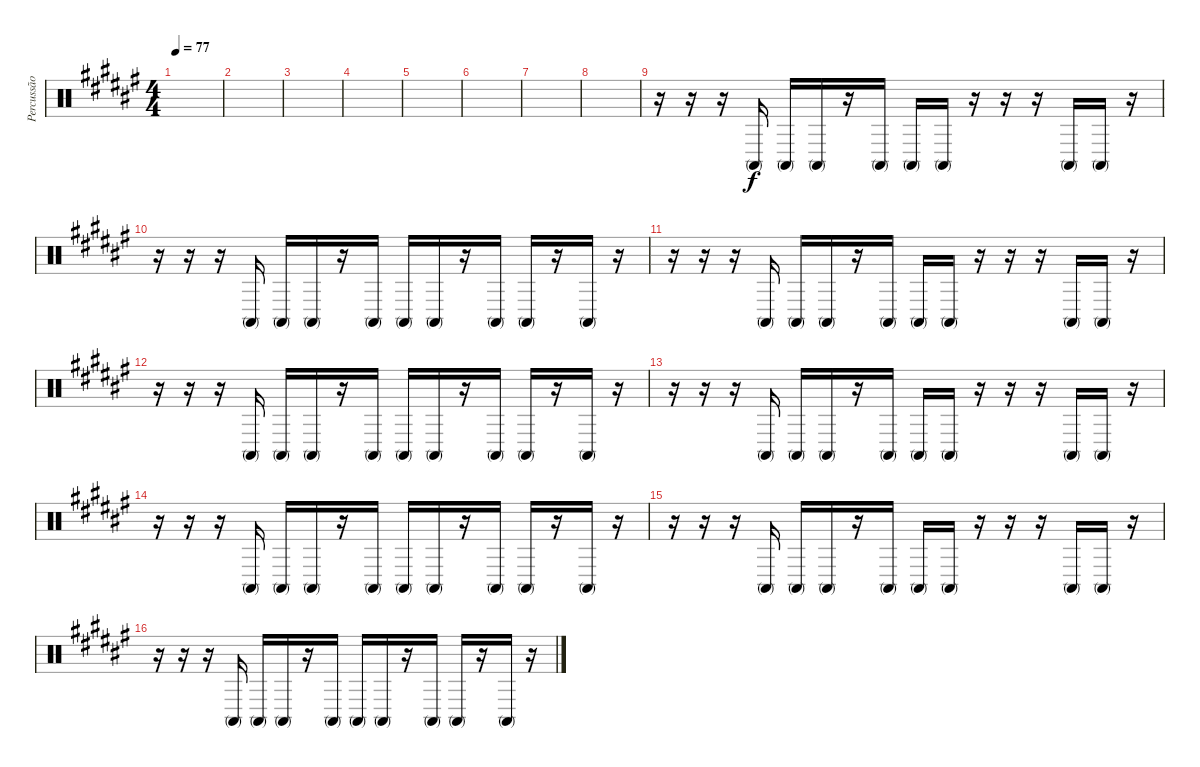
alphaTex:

\track ("Percussão" "Percussão") {instrument percussion}
\staff {score}
\articulation defaults
\ts (4 4)
\tempo 77
\clef neutral
\ks d#minor
|
|
|
|
|
|
|
|
r.16 r.16 r.16 "Conga high (mute)".16 "Conga high (mute)".16 "Conga high (mute)".16 r.16 "Conga high (mute)".16 "Conga high (mute)".16 "Conga high (mute)".16 r.16 r.16 r.16 "Conga high (mute)".16 "Conga high (mute)".16 r.16 |
r.16 r.16 r.16 "Conga high (mute)".16 "Conga high (mute)".16 "Conga high (mute)".16 r.16 "Conga high (mute)".16 "Conga high (mute)".16 "Conga high (mute)".16 r.16 "Conga high (mute)".16 "Conga high (mute)".16 r.16 "Conga high (mute)".16 r.16 |
r.16 r.16 r.16 "Conga high (mute)".16 "Conga high (mute)".16 "Conga high (mute)".16 r.16 "Conga high (mute)".16 "Conga high (mute)".16 "Conga high (mute)".16 r.16 r.16 r.16 "Conga high (mute)".16 "Conga high (mute)".16 r.16 |
r.16 r.16 r.16 "Conga high (mute)".16 "Conga high (mute)".16 "Conga high (mute)".16 r.16 "Conga high (mute)".16 "Conga high (mute)".16 "Conga high (mute)".16 r.16 "Conga high (mute)".16 "Conga high (mute)".16 r.16 "Conga high (mute)".16 r.16 |
r.16 r.16 r.16 "Conga high (mute)".16 "Conga high (mute)".16 "Conga high (mute)".16 r.16 "Conga high (mute)".16 "Conga high (mute)".16 "Conga high (mute)".16 r.16 r.16 r.16 "Conga high (mute)".16 "Conga high (mute)".16 r.16 |
r.16 r.16 r.16 "Conga high (mute)".16 "Conga high (mute)".16 "Conga high (mute)".16 r.16 "Conga high (mute)".16 "Conga high (mute)".16 "Conga high (mute)".16 r.16 "Conga high (mute)".16 "Conga high (mute)".16 r.16 "Conga high (mute)".16 r.16 |
r.16 r.16 r.16 "Conga high (mute)".16 "Conga high (mute)".16 "Conga high (mute)".16 r.16 "Conga high (mute)".16 "Conga high (mute)".16 "Conga high (mute)".16 r.16 r.16 r.16 "Conga high (mute)".16 "Conga high (mute)".16 r.16 |
r.16 r.16 r.16 "Conga high (mute)".16 "Conga high (mute)".16 "Conga high (mute)".16 r.16 "Conga high (mute)".16 "Conga high (mute)".16 "Conga high (mute)".16 r.16 "Conga high (mute)".16 "Conga high (mute)".16 r.16 "Conga high (mute)".16 r.16
